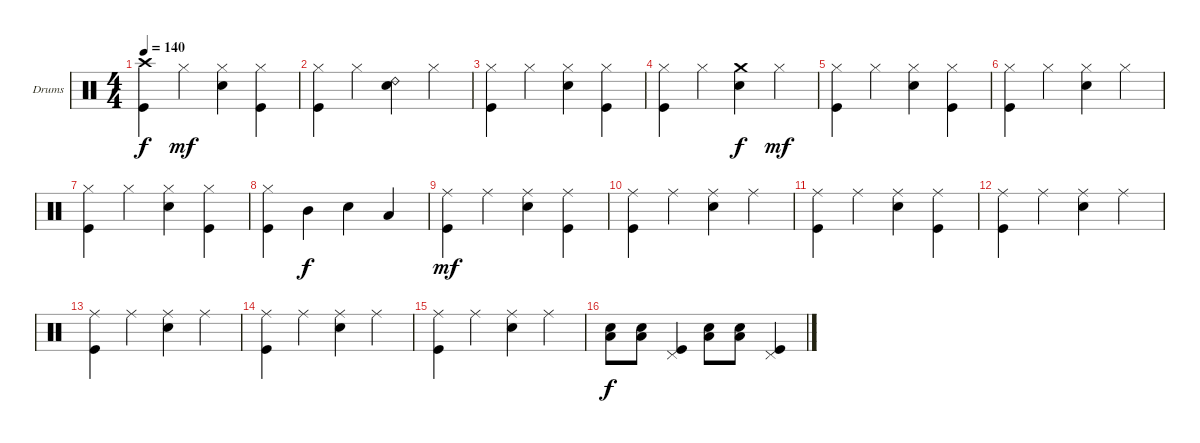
\bracketExtendMode groupsimilarinstruments
\firstSystemTrackNameOrientation horizontal
\otherSystemsTrackNameOrientation horizontal
\track ("Drumkit (Ray Cooper)" "Drums") {instrument percussion}
\staff {score}
\articulation defaults
\ts (4 4)
\tempo 140
\clef neutral
\scale
1.07945
\ks c
("Kick (hit)" "Crash high (hit)").4{dy f} "Hi-Hat (closed)".4{dy mf} ("Hi-Hat (closed)" "Snare (hit) 2").4 ("Hi-Hat (closed)" "Kick (hit)").4 |
\scale
0.973518 ("Hi-Hat (closed)" "Kick (hit)").4 "Hi-Hat (closed)".4 ("Snare (hit) 2" "Ride (bell) 2").4 "Hi-Hat (closed)".4 |
\scale
0.973518 ("Kick (hit)" "Hi-Hat (closed)").4 "Hi-Hat (closed)".4 ("Hi-Hat (closed)" "Snare (hit) 2").4 ("Hi-Hat (closed)" "Kick (hit)").4 |
\scale
0.973518 ("Hi-Hat (closed)" "Kick (hit)").4 "Hi-Hat (closed)".4 ("Snare (hit) 2" "Crash medium (hit)").4{dy f} "Hi-Hat (closed)".4{dy mf} |
\scale
1.07945 ("Kick (hit)" "Hi-Hat (closed)").4 "Hi-Hat (closed)".4 ("Hi-Hat (closed)" "Snare (hit) 2").4 ("Hi-Hat (closed)" "Kick (hit)").4 |
\scale
0.973518 ("Hi-Hat (closed)" "Kick (hit)").4 "Hi-Hat (closed)".4 ("Hi-Hat (closed)" "Snare (hit) 2").4 "Hi-Hat (closed)".4 |
\scale
0.973518 ("Kick (hit)" "Hi-Hat (closed)").4 "Hi-Hat (closed)".4 ("Hi-Hat (closed)" "Snare (hit) 2").4 ("Hi-Hat (closed)" "Kick (hit)").4 |
\scale
0.973518 ("Hi-Hat (closed)" "Kick (hit)").4 "Mid Tom (hit)".4{dy f} "Snare (hit) 2".4 "Low Tom (hit)".4 |
\scale
1.07945 ("Kick (hit)" "Ride (middle)").4{dy mf} "Ride (middle)".4 ("Snare (hit) 2" "Ride (middle)").4 ("Kick (hit)" "Ride (middle)").4 |
\scale
0.973518 ("Kick (hit)" "Ride (middle)").4 "Ride (middle)".4 ("Snare (hit) 2" "Ride (middle)").4 "Ride (middle)".4 |
\scale
0.973518 ("Kick (hit)" "Ride (middle)").4 "Ride (middle)".4 ("Snare (hit) 2" "Ride (middle)").4 ("Kick (hit)" "Ride (middle)").4 |
\scale
0.973518 ("Kick (hit)" "Ride (middle)").4 "Ride (middle)".4 ("Snare (hit) 2" "Ride (middle)").4 "Ride (middle)".4 |
\scale
1.07945 ("Ride (middle)" "Kick (hit)").4 "Ride (middle)".4 ("Ride (middle)" "Snare (hit) 2").4 "Ride (middle)".4 |
\scale
0.973518 ("Ride (middle)" "Kick (hit)").4 "Ride (middle)".4 ("Ride (middle)" "Snare (hit) 2").4 "Ride (middle)".4 |
\scale
0.973518 ("Ride (middle)" "Kick (hit)").4 "Ride (middle)".4 ("Ride (middle)" "Snare (hit) 2").4 "Ride (middle)".4 |
\scale
0.973518 ("Low Tom (hit)" "Snare (hit) 2").8{dy f} ("Snare (hit) 2" "Low Tom (hit)").8 ("Pedal Hi-Hat (hit)" "Kick (hit)").4 ("Snare (hit) 2" "Low Tom (hit)").8 ("Snare (hit) 2" "Low Tom (hit)").8 ("Kick (hit)" "Pedal Hi-Hat (hit)").4
